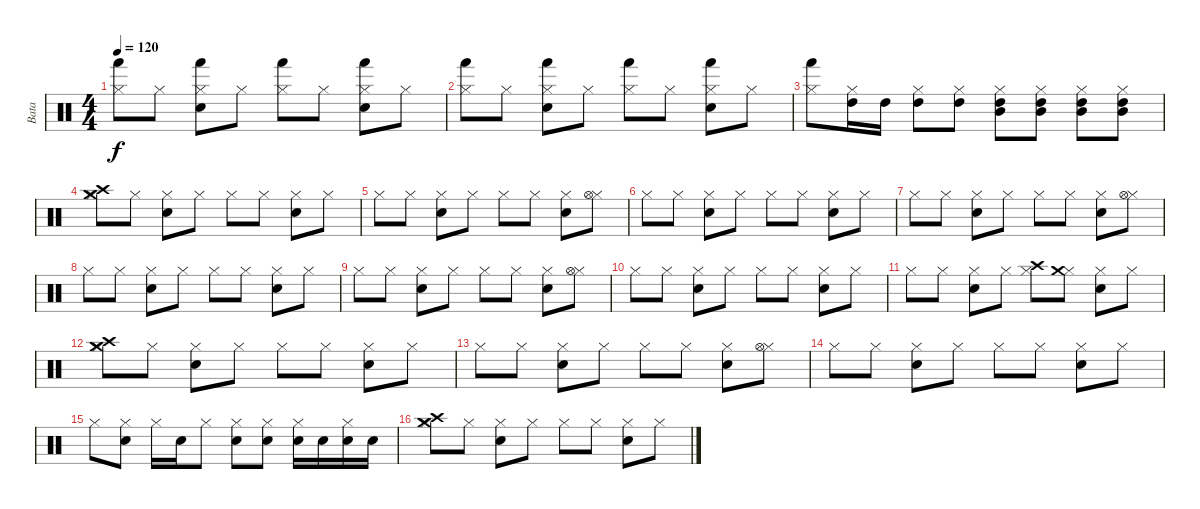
\track ("Bata" "Bata") {instrument percussion}
\staff {score}
\articulation defaults
\ts (4 4)
\tempo 120
\clef neutral
\ks c
("Hi-Hat (closed)" "Hand (hit)").8{dy f} "Hi-Hat (closed)".8 ("Hi-Hat (closed)" "Electric Snare (hit)" "Hand (hit)").8 "Hi-Hat (closed)".8 ("Hi-Hat (closed)" "Hand (hit)").8 "Hi-Hat (closed)".8 ("Hi-Hat (closed)" "Electric Snare (hit)" "Hand (hit)").8 "Hi-Hat (closed)".8 |
("Hi-Hat (closed)" "Hand (hit)").8 "Hi-Hat (closed)".8 ("Hi-Hat (closed)" "Electric Snare (hit)" "Hand (hit)").8 "Hi-Hat (closed)".8 ("Hi-Hat (closed)" "Hand (hit)").8 "Hi-Hat (closed)".8 ("Hi-Hat (closed)" "Electric Snare (hit)" "Hand (hit)").8 "Hi-Hat (closed)".8 |
("Hi-Hat (closed)" "Hand (hit)").8 ("Hi-Hat (closed)" "High Tom (hit)").16 "High Tom (hit)".16 ("Hi-Hat (closed)" "High Tom (hit)").8 ("Hi-Hat (closed)" "High Tom (hit)").8 ("Hi-Hat (closed)" "Mid Tom (hit)" "High Tom (hit)").8 ("Hi-Hat (closed)" "Mid Tom (hit)" "High Tom (hit)").8 ("Hi-Hat (closed)" "Mid Tom (hit)" "High Tom (hit)").8 ("Hi-Hat (closed)" "Mid Tom (hit)" "High Tom (hit)").8 |
("Hi-Hat (closed)" "Crash high (hit)" "Crash medium (hit)").8 "Hi-Hat (closed)".8 ("Hi-Hat (closed)" "Electric Snare (hit)").8 "Hi-Hat (closed)".8 "Hi-Hat (closed)".8 "Hi-Hat (closed)".8 ("Hi-Hat (closed)" "Electric Snare (hit)").8 "Hi-Hat (closed)".8 |
"Hi-Hat (closed)".8 "Hi-Hat (closed)".8 ("Hi-Hat (closed)" "Electric Snare (hit)").8 "Hi-Hat (closed)".8 "Hi-Hat (closed)".8 "Hi-Hat (closed)".8 ("Hi-Hat (closed)" "Electric Snare (hit)").8 ("Hi-Hat (closed)" "Hi-Hat (open)").8 |
"Hi-Hat (closed)".8 "Hi-Hat (closed)".8 ("Hi-Hat (closed)" "Electric Snare (hit)").8 "Hi-Hat (closed)".8 "Hi-Hat (closed)".8 "Hi-Hat (closed)".8 ("Hi-Hat (closed)" "Electric Snare (hit)").8 "Hi-Hat (closed)".8 |
"Hi-Hat (closed)".8 "Hi-Hat (closed)".8 ("Hi-Hat (closed)" "Electric Snare (hit)").8 "Hi-Hat (closed)".8 "Hi-Hat (closed)".8 "Hi-Hat (closed)".8 ("Hi-Hat (closed)" "Electric Snare (hit)").8 ("Hi-Hat (closed)" "Hi-Hat (open)").8 |
"Hi-Hat (closed)".8 "Hi-Hat (closed)".8 ("Hi-Hat (closed)" "Electric Snare (hit)").8 "Hi-Hat (closed)".8 "Hi-Hat (closed)".8 "Hi-Hat (closed)".8 ("Hi-Hat (closed)" "Electric Snare (hit)").8 "Hi-Hat (closed)".8 |
"Hi-Hat (closed)".8 "Hi-Hat (closed)".8 ("Hi-Hat (closed)" "Electric Snare (hit)").8 "Hi-Hat (closed)".8 "Hi-Hat (closed)".8 "Hi-Hat (closed)".8 ("Hi-Hat (closed)" "Electric Snare (hit)").8 ("Hi-Hat (closed)" "Hi-Hat (open)").8 |
"Hi-Hat (closed)".8 "Hi-Hat (closed)".8 ("Hi-Hat (closed)" "Electric Snare (hit)").8 "Hi-Hat (closed)".8 "Hi-Hat (closed)".8 "Hi-Hat (closed)".8 ("Hi-Hat (closed)" "Electric Snare (hit)").8 "Hi-Hat (closed)".8 |
"Hi-Hat (closed)".8 "Hi-Hat (closed)".8 ("Hi-Hat (closed)" "Electric Snare (hit)").8 "Hi-Hat (closed)".8 ("Hi-Hat (closed)" "Crash high (hit)").8 ("Hi-Hat (closed)" "Crash medium (hit)").8 ("Hi-Hat (closed)" "Electric Snare (hit)").8 "Hi-Hat (closed)".8 |
("Hi-Hat (closed)" "Crash high (hit)" "Crash medium (hit)").8 "Hi-Hat (closed)".8 ("Hi-Hat (closed)" "Electric Snare (hit)").8 "Hi-Hat (closed)".8 "Hi-Hat (closed)".8 "Hi-Hat (closed)".8 ("Hi-Hat (closed)" "Electric Snare (hit)").8 "Hi-Hat (closed)".8 |
"Hi-Hat (closed)".8 "Hi-Hat (closed)".8 ("Hi-Hat (closed)" "Electric Snare (hit)").8 "Hi-Hat (closed)".8 "Hi-Hat (closed)".8 "Hi-Hat (closed)".8 ("Hi-Hat (closed)" "Electric Snare (hit)").8 ("Hi-Hat (closed)" "Hi-Hat (open)").8 |
"Hi-Hat (closed)".8 "Hi-Hat (closed)".8 ("Hi-Hat (closed)" "Electric Snare (hit)").8 "Hi-Hat (closed)".8 "Hi-Hat (closed)".8 "Hi-Hat (closed)".8 ("Hi-Hat (closed)" "Electric Snare (hit)").8 "Hi-Hat (closed)".8 |
"Hi-Hat (closed)".8 ("Hi-Hat (closed)" "Electric Snare (hit)").8 "Hi-Hat (closed)".16 "Electric Snare (hit)".16 "Hi-Hat (closed)".8 ("Hi-Hat (closed)" "Electric Snare (hit)").8 ("Hi-Hat (closed)" "Electric Snare (hit)").8 ("Hi-Hat (closed)" "Electric Snare (hit)").16 "Electric Snare (hit)".16 ("Hi-Hat (closed)" "Electric Snare (hit)").16 "Electric Snare (hit)".16 |
("Hi-Hat (closed)" "Crash high (hit)" "Crash medium (hit)").8 "Hi-Hat (closed)".8 ("Hi-Hat (closed)" "Electric Snare (hit)").8 "Hi-Hat (closed)".8 "Hi-Hat (closed)".8 "Hi-Hat (closed)".8 ("Hi-Hat (closed)" "Electric Snare (hit)").8 "Hi-Hat (closed)".8
